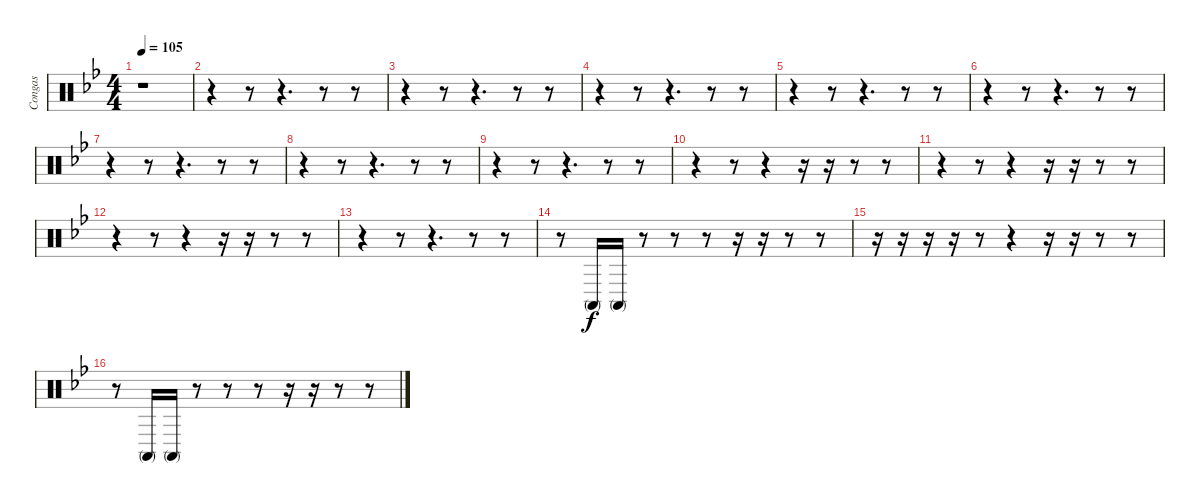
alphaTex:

\track ("Congas" "Congas") {instrument percussion}
\staff {score}
\articulation defaults
\ts (4 4)
\tempo 105
\clef neutral
\ks gminor
r.1{dy f} |
r.4 r.8 r.4{d} r.8 r.8 |
r.4 r.8 r.4{d} r.8 r.8 |
r.4 r.8 r.4{d} r.8 r.8 |
r.4 r.8 r.4{d} r.8 r.8 |
r.4 r.8 r.4{d} r.8 r.8 |
r.4 r.8 r.4{d} r.8 r.8 |
r.4 r.8 r.4{d} r.8 r.8 |
r.4 r.8 r.4{d} r.8 r.8 |
r.4 r.8 r.4 r.16 r.16 r.8 r.8 |
r.4 r.8 r.4 r.16 r.16 r.8 r.8 |
r.4 r.8 r.4 r.16 r.16 r.8 r.8 |
r.4 r.8 r.4{d} r.8 r.8 |
r.8 "Conga high (mute)".16 "Conga high (mute)".16 r.8 r.8 r.8 r.16 r.16 r.8 r.8 |
r.16 r.16 r.16 r.16 r.8 r.4 r.16 r.16 r.8 r.8 |
r.8 "Conga high (mute)".16 "Conga high (mute)".16 r.8 r.8 r.8 r.16 r.16 r.8 r.8
